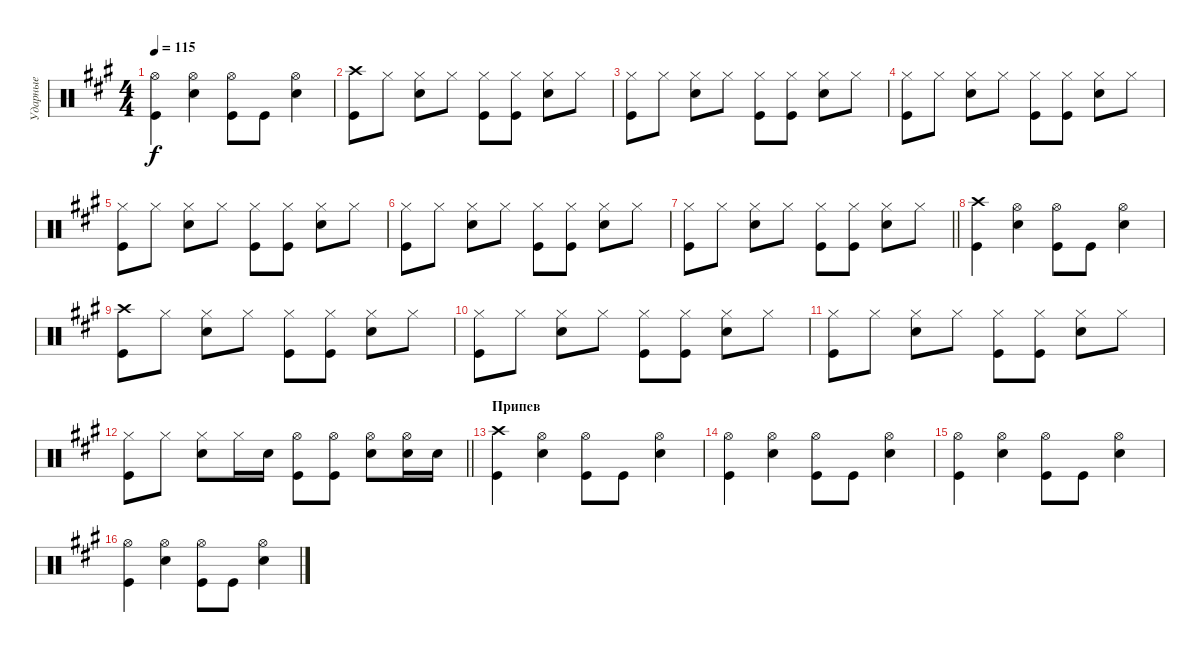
\track ("Ударные" "Ударные") {instrument percussion}
\staff {score}
\articulation defaults
\ts (4 4)
\tempo 115
\clef neutral
\ks a
("Hi-Hat (open)" "Kick (hit)").4{dy f} ("Hi-Hat (open)" "Snare (hit) 2").4 ("Hi-Hat (open)" "Kick (hit)").8 "Kick (hit)".8 ("Hi-Hat (open)" "Snare (hit) 2").4 |
("Crash high (hit)" "Kick (hit)").8 "Hi-Hat (closed)".8 ("Hi-Hat (closed)" "Snare (hit) 2").8 "Hi-Hat (closed)".8 ("Hi-Hat (closed)" "Kick (hit)").8 ("Kick (hit)" "Hi-Hat (closed)").8 ("Hi-Hat (closed)" "Snare (hit) 2").8 "Hi-Hat (closed)".8 |
("Hi-Hat (closed)" "Kick (hit)").8 "Hi-Hat (closed)".8 ("Snare (hit) 2" "Hi-Hat (closed)").8 "Hi-Hat (closed)".8 ("Hi-Hat (closed)" "Kick (hit)").8 ("Kick (hit)" "Hi-Hat (closed)").8 ("Hi-Hat (closed)" "Snare (hit) 2").8 "Hi-Hat (closed)".8 |
("Hi-Hat (closed)" "Kick (hit)").8 "Hi-Hat (closed)".8 ("Snare (hit) 2" "Hi-Hat (closed)").8 "Hi-Hat (closed)".8 ("Hi-Hat (closed)" "Kick (hit)").8 ("Kick (hit)" "Hi-Hat (closed)").8 ("Hi-Hat (closed)" "Snare (hit) 2").8 "Hi-Hat (closed)".8 |
("Hi-Hat (closed)" "Kick (hit)").8 "Hi-Hat (closed)".8 ("Snare (hit) 2" "Hi-Hat (closed)").8 "Hi-Hat (closed)".8 ("Hi-Hat (closed)" "Kick (hit)").8 ("Kick (hit)" "Hi-Hat (closed)").8 ("Hi-Hat (closed)" "Snare (hit) 2").8 "Hi-Hat (closed)".8 |
("Hi-Hat (closed)" "Kick (hit)").8 "Hi-Hat (closed)".8 ("Snare (hit) 2" "Hi-Hat (closed)").8 "Hi-Hat (closed)".8 ("Hi-Hat (closed)" "Kick (hit)").8 ("Kick (hit)" "Hi-Hat (closed)").8 ("Hi-Hat (closed)" "Snare (hit) 2").8 "Hi-Hat (closed)".8 |
\barLineRight lightlight
("Hi-Hat (closed)" "Kick (hit)").8 "Hi-Hat (closed)".8 ("Snare (hit) 2" "Hi-Hat (closed)").8 "Hi-Hat (closed)".8 ("Hi-Hat (closed)" "Kick (hit)").8 ("Kick (hit)" "Hi-Hat (closed)").8 ("Hi-Hat (closed)" "Snare (hit) 2").8 "Hi-Hat (closed)".8 |
("Crash high (hit)" "Kick (hit)").4 ("Hi-Hat (open)" "Snare (hit) 2").4 ("Hi-Hat (open)" "Kick (hit)").8 "Kick (hit)".8 ("Hi-Hat (open)" "Snare (hit) 2").4 |
("Crash high (hit)" "Kick (hit)").8 "Hi-Hat (closed)".8 ("Hi-Hat (closed)" "Snare (hit) 2").8 "Hi-Hat (closed)".8 ("Hi-Hat (closed)" "Kick (hit)").8 ("Kick (hit)" "Hi-Hat (closed)").8 ("Hi-Hat (closed)" "Snare (hit) 2").8 "Hi-Hat (closed)".8 |
("Hi-Hat (closed)" "Kick (hit)").8 "Hi-Hat (closed)".8 ("Snare (hit) 2" "Hi-Hat (closed)").8 "Hi-Hat (closed)".8 ("Hi-Hat (closed)" "Kick (hit)").8 ("Kick (hit)" "Hi-Hat (closed)").8 ("Hi-Hat (closed)" "Snare (hit) 2").8 "Hi-Hat (closed)".8 |
("Hi-Hat (closed)" "Kick (hit)").8 "Hi-Hat (closed)".8 ("Snare (hit) 2" "Hi-Hat (closed)").8 "Hi-Hat (closed)".8 ("Hi-Hat (closed)" "Kick (hit)").8 ("Kick (hit)" "Hi-Hat (closed)").8 ("Hi-Hat (closed)" "Snare (hit) 2").8 "Hi-Hat (closed)".8 |
\barLineRight lightlight
("Kick (hit)" "Hi-Hat (closed)").8 "Hi-Hat (closed)".8 ("Hi-Hat (closed)" "Snare (hit) 2").8 "Hi-Hat (closed)".16 "Snare (hit) 2".16 ("Hi-Hat (open)" "Kick (hit)").8 ("Hi-Hat (open)" "Kick (hit)").8 ("Hi-Hat (open)" "Snare (hit) 2").8 ("Hi-Hat (open)" "Snare (hit) 2").16 "Snare (hit) 2".16 |
\section ("" "Припев")
("Crash high (hit)" "Kick (hit)").4 ("Hi-Hat (open)" "Snare (hit) 2").4 ("Hi-Hat (open)" "Kick (hit)").8 "Kick (hit)".8 ("Hi-Hat (open)" "Snare (hit) 2").4 |
("Hi-Hat (open)" "Kick (hit)").4 ("Hi-Hat (open)" "Snare (hit) 2").4 ("Hi-Hat (open)" "Kick (hit)").8 "Kick (hit)".8 ("Hi-Hat (open)" "Snare (hit) 2").4 |
("Hi-Hat (open)" "Kick (hit)").4 ("Hi-Hat (open)" "Snare (hit) 2").4 ("Hi-Hat (open)" "Kick (hit)").8 "Kick (hit)".8 ("Hi-Hat (open)" "Snare (hit) 2").4 |
("Hi-Hat (open)" "Kick (hit)").4 ("Hi-Hat (open)" "Snare (hit) 2").4 ("Hi-Hat (open)" "Kick (hit)").8 "Kick (hit)".8 ("Hi-Hat (open)" "Snare (hit) 2").4
